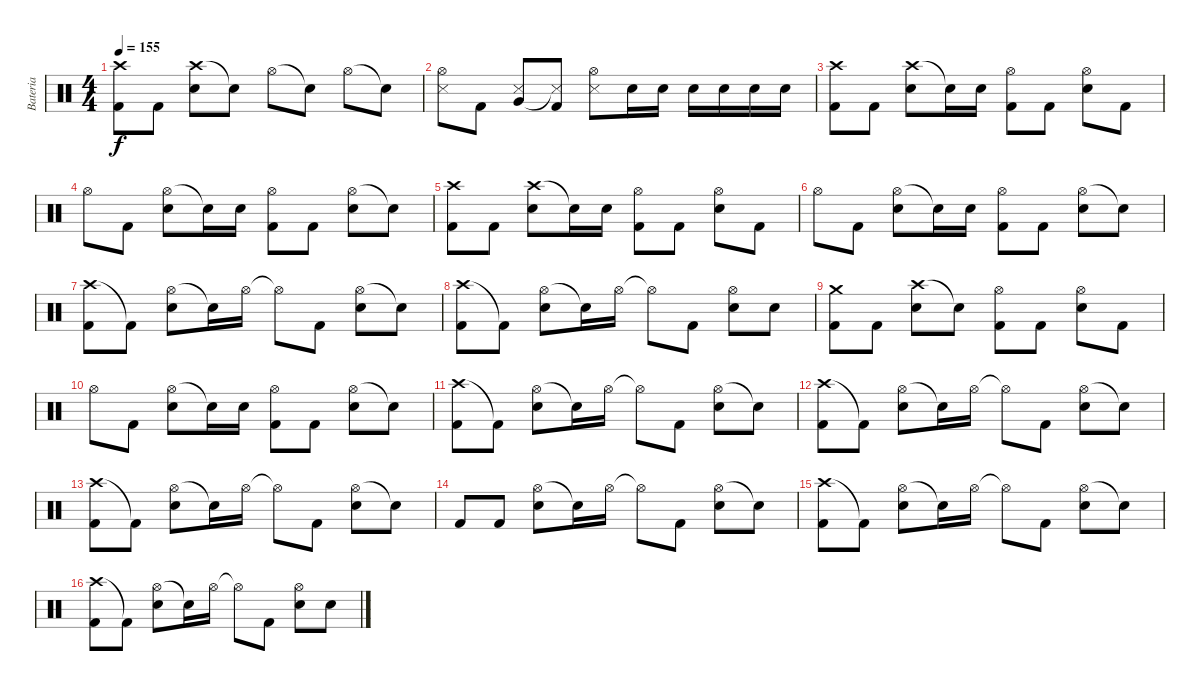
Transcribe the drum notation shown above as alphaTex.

\track ("Bateria" "Bateria") {instrument percussion}
\staff {score}
\articulation defaults
\ts (4 4)
\tempo 155
\clef neutral
\ks c
("Crash high (hit)" "Kick (hit) 2").8{dy f} "Kick (hit) 2".8 ("Crash high (hit)" "Snare (hit) 2").8 "Snare (hit) 2"{t}.8 "Hi-Hat (open)".8 "Snare (hit)"{t}.8 "Hi-Hat (open)".8 "Snare (hit)"{t}.8 |
("Hi-Hat (open)" "Snare (side stick) 3").8 "Kick (hit) 2".8 ("Very Low Tom (hit)" "Snare (side stick) 3").8 ("Snare (side stick) 3"{t} "Kick (hit) 2").8 ("Hi-Hat (open)" "Snare (side stick) 3").8 "Snare (hit) 2".16 "Snare (hit) 2".16 "Snare (hit) 2".16 "Snare (hit) 2".16 "Snare (hit) 2".16 "Snare (hit) 2".16 |
("Crash high (hit)" "Kick (hit) 2").8 "Kick (hit) 2".8 ("Crash high (hit)" "Snare (hit) 2").8 "Snare (hit) 2"{t}.16 "Snare (hit) 2".16 ("Hi-Hat (open)" "Kick (hit) 2").8 "Kick (hit) 2".8 ("Hi-Hat (open)" "Snare (hit) 2").8 "Kick (hit) 2".8 |
"Hi-Hat (open)".8 "Kick (hit) 2".8 ("Hi-Hat (open)" "Snare (hit) 2").8 "Snare (hit) 2"{t}.16 "Snare (hit) 2".16 ("Hi-Hat (open)" "Kick (hit) 2").8 "Kick (hit) 2".8 ("Hi-Hat (open)" "Snare (hit) 2").8 "Snare (hit)"{t}.8 |
("Crash high (hit)" "Kick (hit) 2").8 "Kick (hit) 2".8 ("Crash high (hit)" "Snare (hit) 2").8 "Snare (hit) 2"{t}.16 "Snare (hit) 2".16 ("Hi-Hat (open)" "Kick (hit) 2").8 "Kick (hit) 2".8 ("Hi-Hat (open)" "Snare (hit) 2").8 "Kick (hit) 2".8 |
"Hi-Hat (open)".8 "Kick (hit) 2".8 ("Hi-Hat (open)" "Snare (hit) 2").8 "Snare (hit) 2"{t}.16 "Snare (hit) 2".16 ("Hi-Hat (open)" "Kick (hit) 2").8 "Kick (hit) 2".8 ("Hi-Hat (open)" "Snare (hit) 2").8 "Snare (hit)"{t}.8 |
("Crash high (hit)" "Kick (hit) 2").8 "Kick (hit) 2"{t}.8 ("Hi-Hat (open)" "Snare (hit) 2").8 "Snare (hit) 2"{t}.16 "Hi-Hat (open)".16 "Hi-Hat (open)"{t}.8 "Kick (hit) 2".8 ("Hi-Hat (open)" "Snare (hit) 2").8 "Snare (hit)"{t}.8 |
("Crash high (hit)" "Kick (hit) 2").8 "Kick (hit) 2"{t}.8 ("Hi-Hat (open)" "Snare (hit) 2").8 "Snare (hit) 2"{t}.16 "Hi-Hat (open)".16 "Hi-Hat (open)"{t}.8 "Kick (hit) 2".8 ("Hi-Hat (open)" "Snare (hit) 2").8 "Snare (hit) 2".8 |
("Crash medium (hit)" "Kick (hit) 2").8 "Kick (hit) 2".8 ("Crash high (hit)" "Snare (hit) 2").8 "Snare (hit)"{t}.8 ("Hi-Hat (open)" "Kick (hit) 2").8 "Kick (hit) 2".8 ("Hi-Hat (open)" "Snare (hit) 2").8 "Kick (hit) 2".8 |
"Hi-Hat (open)".8 "Kick (hit) 2".8 ("Hi-Hat (open)" "Snare (hit) 2").8 "Snare (hit) 2"{t}.16 "Snare (hit) 2".16 ("Hi-Hat (open)" "Kick (hit) 2").8 "Kick (hit) 2".8 ("Hi-Hat (open)" "Snare (hit) 2").8 "Snare (hit)"{t}.8 |
("Crash high (hit)" "Kick (hit) 2").8 "Kick (hit) 2"{t}.8 ("Hi-Hat (open)" "Snare (hit) 2").8 "Snare (hit) 2"{t}.16 "Hi-Hat (open)".16 "Hi-Hat (open)"{t}.8 "Kick (hit) 2".8 ("Hi-Hat (open)" "Snare (hit) 2").8 "Snare (hit)"{t}.8 |
("Crash high (hit)" "Kick (hit) 2").8 "Kick (hit) 2"{t}.8 ("Hi-Hat (open)" "Snare (hit) 2").8 "Snare (hit) 2"{t}.16 "Hi-Hat (open)".16 "Hi-Hat (open)"{t}.8 "Kick (hit) 2".8 ("Hi-Hat (open)" "Snare (hit) 2").8 "Snare (hit) 2"{t}.8 |
("Crash high (hit)" "Kick (hit) 2").8 "Kick (hit) 2"{t}.8 ("Hi-Hat (open)" "Snare (hit) 2").8 "Snare (hit) 2"{t}.16 "Hi-Hat (open)".16 "Hi-Hat (open)"{t}.8 "Kick (hit) 2".8 ("Hi-Hat (open)" "Snare (hit) 2").8 "Snare (hit)"{t}.8 |
"Kick (hit) 2".8 "Kick (hit) 2".8 ("Hi-Hat (open)" "Snare (hit) 2").8 "Snare (hit) 2"{t}.16 "Hi-Hat (open)".16 "Hi-Hat (open)"{t}.8 "Kick (hit) 2".8 ("Hi-Hat (open)" "Snare (hit) 2").8 "Snare (hit)"{t}.8 |
("Crash high (hit)" "Kick (hit) 2").8 "Kick (hit) 2"{t}.8 ("Hi-Hat (open)" "Snare (hit) 2").8 "Snare (hit) 2"{t}.16 "Hi-Hat (open)".16 "Hi-Hat (open)"{t}.8 "Kick (hit) 2".8 ("Hi-Hat (open)" "Snare (hit) 2").8 "Snare (hit) 2"{t}.8 |
("Crash high (hit)" "Kick (hit) 2").8 "Kick (hit) 2"{t}.8 ("Hi-Hat (open)" "Snare (hit) 2").8 "Snare (hit) 2"{t}.16 "Hi-Hat (open)".16 "Hi-Hat (open)"{t}.8 "Kick (hit) 2".8 ("Hi-Hat (open)" "Snare (hit) 2").8 "Snare (hit) 2".8
